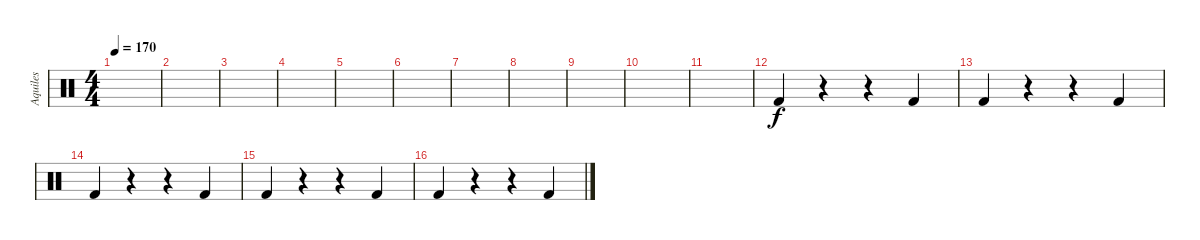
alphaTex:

\track ("Aquiles" "Aquiles") {instrument percussion}
\staff {score}
\articulation defaults
\ts (4 4)
\tempo 170
\tempo 120
\tempo 170
\clef neutral
\ks c
|
|
|
|
|
|
|
|
|
|
|
"Kick (hit) 2".4 r.4 r.4 "Kick (hit) 2".4 |
"Kick (hit) 2".4 r.4 r.4 "Kick (hit) 2".4 |
"Kick (hit) 2".4 r.4 r.4 "Kick (hit) 2".4 |
"Kick (hit) 2".4 r.4 r.4 "Kick (hit) 2".4 |
"Kick (hit) 2".4 r.4 r.4 "Kick (hit) 2".4
